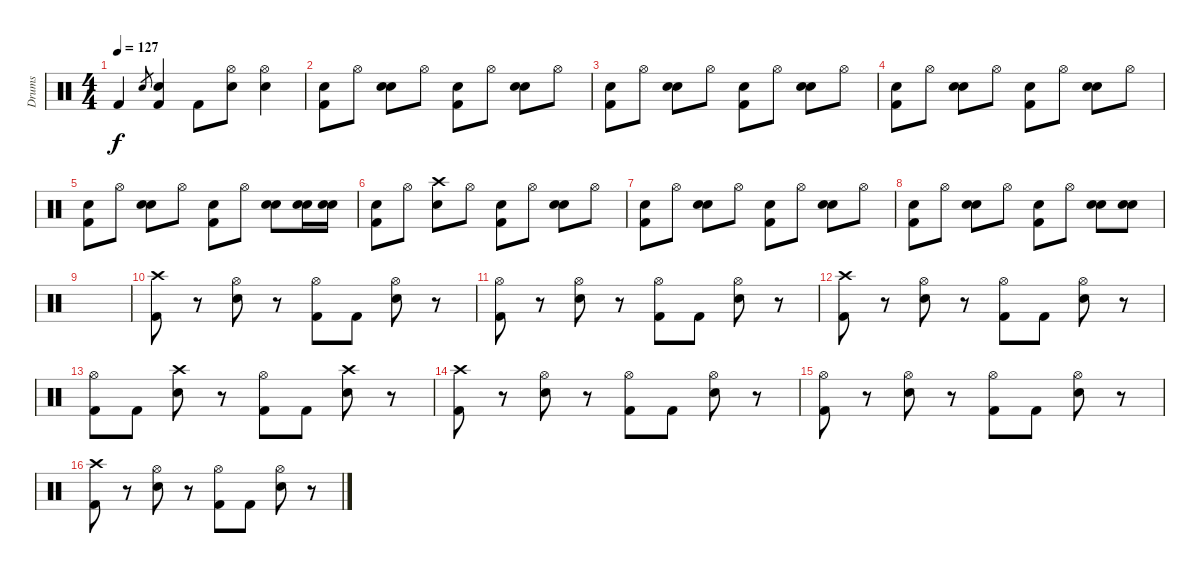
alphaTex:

\track ("Drums" "Drums") {instrument percussion}
\staff {score}
\articulation defaults
\ts (4 4)
\tempo 127
\clef neutral
\ks c "Kick (hit) 2".4{dy f} "Snare (hit) 2".8{gr}
("Kick (hit) 2" "Snare (hit) 2").4 "Kick (hit) 2".8 ("Hi-Hat (open)" "Snare (hit) 2").8 ("Hi-Hat (open)" "Snare (hit) 2").4 |
("Snare (hit)" "Kick (hit) 2").8 "Hi-Hat (open)".8 ("Snare (hit)" "Snare (hit) 2").8 "Hi-Hat (open)".8 ("Snare (hit)" "Kick (hit) 2").8 "Hi-Hat (open)".8 ("Snare (hit)" "Snare (hit) 2").8 "Hi-Hat (open)".8 |
("Snare (hit)" "Kick (hit) 2").8 "Hi-Hat (open)".8 ("Snare (hit)" "Snare (hit) 2").8 "Hi-Hat (open)".8 ("Snare (hit)" "Kick (hit) 2").8 "Hi-Hat (open)".8 ("Snare (hit)" "Snare (hit) 2").8 "Hi-Hat (open)".8 |
("Snare (hit)" "Kick (hit) 2").8 "Hi-Hat (open)".8 ("Snare (hit)" "Snare (hit) 2").8 "Hi-Hat (open)".8 ("Snare (hit)" "Kick (hit) 2").8 "Hi-Hat (open)".8 ("Snare (hit)" "Snare (hit) 2").8 "Hi-Hat (open)".8 |
("Snare (hit)" "Kick (hit) 2").8 "Hi-Hat (open)".8 ("Snare (hit)" "Snare (hit) 2").8 "Hi-Hat (open)".8 ("Snare (hit)" "Kick (hit) 2").8 "Hi-Hat (open)".8 ("Snare (hit)" "Snare (hit) 2").8 ("Snare (hit)" "Snare (hit) 2").16 ("Snare (hit)" "Snare (hit) 2").16 |
("Snare (hit)" "Kick (hit) 2").8 "Hi-Hat (open)".8 ("Crash high (hit)" "Snare (hit) 2").8 "Hi-Hat (open)".8 ("Snare (hit)" "Kick (hit) 2").8 "Hi-Hat (open)".8 ("Snare (hit)" "Snare (hit) 2").8 "Hi-Hat (open)".8 |
("Snare (hit)" "Kick (hit) 2").8 "Hi-Hat (open)".8 ("Snare (hit)" "Snare (hit) 2").8 "Hi-Hat (open)".8 ("Snare (hit)" "Kick (hit) 2").8 "Hi-Hat (open)".8 ("Snare (hit)" "Snare (hit) 2").8 "Hi-Hat (open)".8 |
("Snare (hit)" "Kick (hit) 2").8 "Hi-Hat (open)".8 ("Snare (hit)" "Snare (hit) 2").8 "Hi-Hat (open)".8 ("Snare (hit)" "Kick (hit) 2").8 "Hi-Hat (open)".8 ("Snare (hit)" "Snare (hit) 2").8 ("Snare (hit)" "Snare (hit) 2").8 |
|
("Crash high (hit)" "Kick (hit) 2").8 r.8 ("Hi-Hat (open)" "Snare (hit) 2").8 r.8 ("Hi-Hat (open)" "Kick (hit) 2").8 "Kick (hit) 2".8 ("Hi-Hat (open)" "Snare (hit) 2").8 r.8 |
("Hi-Hat (open)" "Kick (hit) 2").8 r.8 ("Hi-Hat (open)" "Snare (hit) 2").8 r.8 ("Hi-Hat (open)" "Kick (hit) 2").8 "Kick (hit) 2".8 ("Hi-Hat (open)" "Snare (hit) 2").8 r.8 |
("Crash high (hit)" "Kick (hit) 2").8 r.8 ("Hi-Hat (open)" "Snare (hit) 2").8 r.8 ("Hi-Hat (open)" "Kick (hit) 2").8 "Kick (hit) 2".8 ("Hi-Hat (open)" "Snare (hit) 2").8 r.8 |
("Hi-Hat (open)" "Kick (hit) 2").8 "Kick (hit) 2".8 ("Crash high (hit)" "Snare (hit) 2").8 r.8 ("Hi-Hat (open)" "Kick (hit) 2").8 "Kick (hit) 2".8 ("Crash high (hit)" "Snare (hit) 2").8 r.8 |
("Crash high (hit)" "Kick (hit) 2").8 r.8 ("Hi-Hat (open)" "Snare (hit) 2").8 r.8 ("Hi-Hat (open)" "Kick (hit) 2").8 "Kick (hit) 2".8 ("Hi-Hat (open)" "Snare (hit) 2").8 r.8 |
("Hi-Hat (open)" "Kick (hit) 2").8 r.8 ("Hi-Hat (open)" "Snare (hit) 2").8 r.8 ("Hi-Hat (open)" "Kick (hit) 2").8 "Kick (hit) 2".8 ("Hi-Hat (open)" "Snare (hit) 2").8 r.8 |
("Crash high (hit)" "Kick (hit) 2").8 r.8 ("Hi-Hat (open)" "Snare (hit) 2").8 r.8 ("Hi-Hat (open)" "Kick (hit) 2").8 "Kick (hit) 2".8 ("Hi-Hat (open)" "Snare (hit) 2").8 r.8
